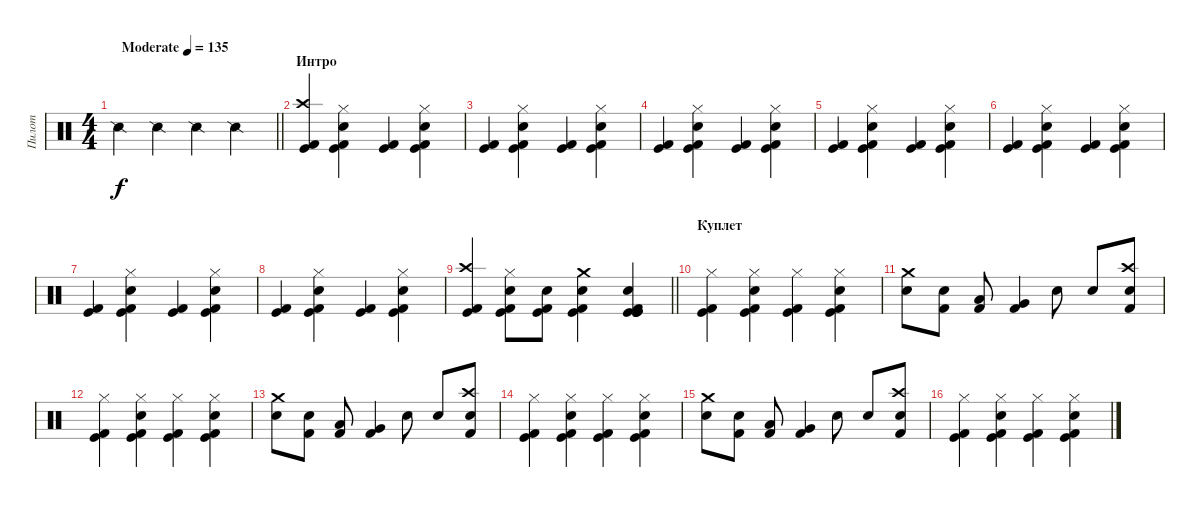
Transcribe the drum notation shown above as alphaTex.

\track ("Пилот" "Пилот") {instrument percussion}
\staff {score}
\articulation defaults
\ts (4 4)
\tempo (135 "Moderate")
\clef neutral
\barLineRight lightlight
\ks c "Snare (side stick) 2".4{dy f} "Snare (side stick) 2".4 "Snare (side stick) 2".4 "Snare (side stick) 2".4
|
\section ("" "Интро")
("Kick (hit) 2" "Crash high (hit)" "Kick (hit)").4 ("Kick (hit) 2" "Snare (hit) 2" "Hi-Hat (closed)" "Kick (hit)").4 ("Kick (hit) 2" "Kick (hit)").4 ("Kick (hit) 2" "Snare (hit) 2" "Hi-Hat (closed)" "Kick (hit)").4 |
("Kick (hit) 2" "Kick (hit)").4 ("Kick (hit) 2" "Snare (hit) 2" "Hi-Hat (closed)" "Kick (hit)").4 ("Kick (hit) 2" "Kick (hit)").4 ("Kick (hit) 2" "Snare (hit) 2" "Hi-Hat (closed)" "Kick (hit)").4 |
("Kick (hit) 2" "Kick (hit)").4 ("Kick (hit) 2" "Snare (hit) 2" "Hi-Hat (closed)" "Kick (hit)").4 ("Kick (hit) 2" "Kick (hit)").4 ("Kick (hit) 2" "Snare (hit) 2" "Hi-Hat (closed)" "Kick (hit)").4 |
("Kick (hit) 2" "Kick (hit)").4 ("Kick (hit) 2" "Snare (hit) 2" "Hi-Hat (closed)" "Kick (hit)").4 ("Kick (hit) 2" "Kick (hit)").4 ("Kick (hit) 2" "Snare (hit) 2" "Hi-Hat (closed)" "Kick (hit)").4 |
("Kick (hit) 2" "Kick (hit)").4 ("Kick (hit) 2" "Snare (hit) 2" "Hi-Hat (closed)" "Kick (hit)").4 ("Kick (hit) 2" "Kick (hit)").4 ("Kick (hit) 2" "Snare (hit) 2" "Hi-Hat (closed)" "Kick (hit)").4 |
("Kick (hit) 2" "Kick (hit)").4 ("Kick (hit) 2" "Snare (hit) 2" "Hi-Hat (closed)" "Kick (hit)").4 ("Kick (hit) 2" "Kick (hit)").4 ("Kick (hit) 2" "Snare (hit) 2" "Hi-Hat (closed)" "Kick (hit)").4 |
("Kick (hit) 2" "Kick (hit)").4 ("Kick (hit) 2" "Snare (hit) 2" "Hi-Hat (closed)" "Kick (hit)").4 ("Kick (hit) 2" "Kick (hit)").4 ("Kick (hit) 2" "Snare (hit) 2" "Hi-Hat (closed)" "Kick (hit)").4 |
\barLineRight lightlight
("Kick (hit) 2" "Crash high (hit)" "Kick (hit)").4 ("Kick (hit) 2" "Snare (hit) 2" "Hi-Hat (closed)" "Kick (hit)").8 ("Kick (hit) 2" "Snare (hit) 2" "Kick (hit)").8 ("Kick (hit) 2" "Snare (hit) 2" "Crash medium (hit)" "Kick (hit)").4 ("Kick (hit) 2" "Snare (hit) 2" "Kick (hit)" "Kick (hit)" "Kick (hit)" "Kick (hit)").4 |
\section ("" "Куплет")
("Kick (hit) 2" "Hi-Hat (closed)" "Kick (hit)").4 ("Kick (hit) 2" "Snare (hit) 2" "Hi-Hat (closed)" "Kick (hit)").4 ("Kick (hit) 2" "Hi-Hat (closed)" "Kick (hit)").4 ("Kick (hit) 2" "Snare (hit) 2" "Hi-Hat (closed)" "Kick (hit)").4 |
("Crash medium (hit)" "Snare (hit) 2").8 ("Kick (hit) 2" "Snare (hit) 2").8 ("Kick (hit) 2" "Low Tom (hit)").8 ("Kick (hit) 2" "Very Low Tom (hit)").4 "Snare (hit) 2".8 "Snare (hit) 2".8 ("Kick (hit) 2" "Crash high (hit)" "Snare (hit) 2").8 |
("Kick (hit) 2" "Hi-Hat (closed)" "Kick (hit)").4 ("Kick (hit) 2" "Snare (hit) 2" "Hi-Hat (closed)" "Kick (hit)").4 ("Kick (hit) 2" "Hi-Hat (closed)" "Kick (hit)").4 ("Kick (hit) 2" "Snare (hit) 2" "Hi-Hat (closed)" "Kick (hit)").4 |
("Crash medium (hit)" "Snare (hit) 2").8 ("Kick (hit) 2" "Snare (hit) 2").8 ("Kick (hit) 2" "Low Tom (hit)").8 ("Kick (hit) 2" "Very Low Tom (hit)").4 "Snare (hit) 2".8 "Snare (hit) 2".8 ("Kick (hit) 2" "Crash high (hit)" "Snare (hit) 2").8 |
("Kick (hit) 2" "Hi-Hat (closed)" "Kick (hit)").4 ("Kick (hit) 2" "Snare (hit) 2" "Hi-Hat (closed)" "Kick (hit)").4 ("Kick (hit) 2" "Hi-Hat (closed)" "Kick (hit)").4 ("Kick (hit) 2" "Snare (hit) 2" "Hi-Hat (closed)" "Kick (hit)").4 |
("Crash medium (hit)" "Snare (hit) 2").8 ("Kick (hit) 2" "Snare (hit) 2").8 ("Kick (hit) 2" "Low Tom (hit)").8 ("Kick (hit) 2" "Very Low Tom (hit)").4 "Snare (hit) 2".8 "Snare (hit) 2".8 ("Kick (hit) 2" "Crash high (hit)" "Snare (hit) 2").8 |
("Kick (hit) 2" "Hi-Hat (closed)" "Kick (hit)").4 ("Kick (hit) 2" "Snare (hit) 2" "Hi-Hat (closed)" "Kick (hit)").4 ("Kick (hit) 2" "Hi-Hat (closed)" "Kick (hit)").4 ("Kick (hit) 2" "Snare (hit) 2" "Hi-Hat (closed)" "Kick (hit)").4
